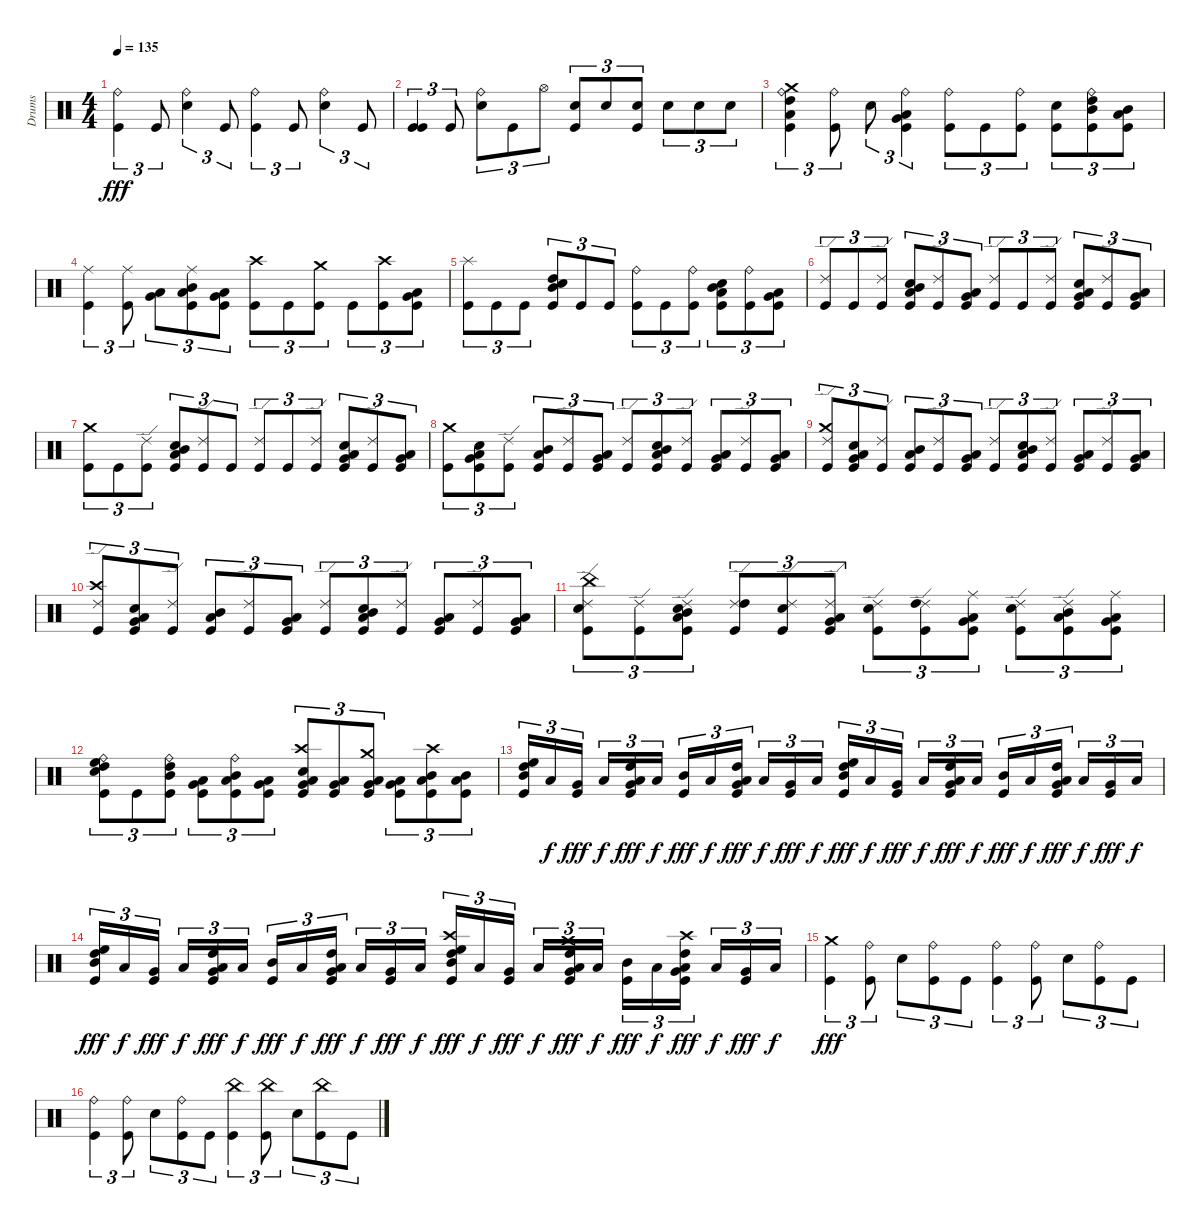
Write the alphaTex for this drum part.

\track ("Drums" "Drums") {instrument percussion}
\staff {score}
\articulation defaults
\ts (4 4)
\tempo 135
\clef neutral
\ks c
("Ride (bell)" "Kick (hit)").4{tu (3 2) dy fff} "Kick (hit)".8{tu (3 2)} ("Ride (bell)" "Snare (hit) 2").4{tu (3 2)} "Kick (hit)".8{tu (3 2)} ("Ride (bell)" "Kick (hit)").4{tu (3 2)} "Kick (hit)".8{tu (3 2)} ("Ride (bell)" "Snare (hit) 2").4{tu (3 2)} "Kick (hit)".8{tu (3 2)} |
("Kick (hit)" "Kick (hit)").4{tu (3 2)} "Kick (hit)".8{tu (3 2)} ("Ride (bell)" "Snare (hit) 2").8{tu (3 2)} "Kick (hit)".8{tu (3 2)} "Hi-Hat (open)".8{tu (3 2)} ("Snare (hit) 2" "Kick (hit)").8{tu (3 2)} "Snare (hit) 2".8{tu (3 2)} ("Snare (hit) 2" "Kick (hit)").8{tu (3 2)} "Snare (hit) 2".8{tu (3 2)} "Snare (hit) 2".8{tu (3 2)} "Snare (hit) 2".8{tu (3 2)} |
("Ride (bell)" "Crash medium (hit)" "High Tom (hit)" "Low Tom (hit)" "Kick (hit)").4{tu (3 2) volume 16} ("Ride (bell)" "Kick (hit)").8{tu (3 2)} "Snare (hit) 2".8{tu (3 2)} ("Ride (bell)" "Low Tom (hit)" "Very Low Tom (hit)" "Kick (hit)").4{tu (3 2)} ("Ride (bell)" "Kick (hit)").8{tu (3 2)} "Kick (hit)".8{tu (3 2)} ("Ride (bell)" "Kick (hit)").8{tu (3 2)} ("Snare (hit) 2" "Kick (hit)").8{tu (3 2)} ("Ride (bell)" "High Tom (hit)" "Mid Tom (hit)" "Kick (hit)").8{tu (3 2)} ("Mid Tom (hit)" "Low Tom (hit)" "Kick (hit)").8{tu (3 2)} |
("Ride (middle)" "Kick (hit)").4{tu (3 2)} ("Ride (middle)" "Kick (hit)").8{tu (3 2)} ("Low Tom (hit)" "Very Low Tom (hit)").8{tu (3 2)} ("Ride (middle)" "Mid Tom (hit)" "Low Tom (hit)" "Kick (hit)").8{tu (3 2)} ("Low Tom (hit)" "Very Low Tom (hit)" "Kick (hit)").8{tu (3 2)} ("Crash high (hit)" "Kick (hit)").8{tu (3 2)} "Kick (hit)".8{tu (3 2)} ("Crash medium (hit)" "Kick (hit)").8{tu (3 2)} "Kick (hit)".8{tu (3 2)} ("Crash high (hit)" "Kick (hit)").8{tu (3 2)} ("Very Low Tom (hit)" "Low Floor Tom (hit)" "Kick (hit)").8{tu (3 2)} |
("Splash (hit)" "Kick (hit)").8{tu (3 2)} "Kick (hit)".8{tu (3 2)} "Kick (hit)".8{tu (3 2)} ("High Tom (hit)" "Mid Tom (hit)" "Snare (hit) 2" "Kick (hit)").8{tu (3 2)} "Kick (hit)".8{tu (3 2)} "Kick (hit)".8{tu (3 2)} ("Ride (bell)" "Kick (hit)").8{tu (3 2)} "Kick (hit)".8{tu (3 2)} ("Ride (bell)" "Kick (hit)").8{tu (3 2)} ("Mid Tom (hit)" "Low Tom (hit)" "Snare (hit) 2" "Kick (hit)").8{tu (3 2)} ("Ride (bell)" "Kick (hit)").8{tu (3 2)} ("Low Tom (hit)" "Very Low Tom (hit)" "Kick (hit)").8{tu (3 2)} |
("Ride (edge) 2" "Kick (hit)").8{tu (3 2)} "Kick (hit)".8{tu (3 2)} ("Ride (edge) 2" "Kick (hit)").8{tu (3 2)} ("Mid Tom (hit)" "Low Tom (hit)" "Snare (hit) 2" "Kick (hit)").8{tu (3 2)} ("Ride (edge) 2" "Kick (hit)").8{tu (3 2)} ("Low Tom (hit)" "Very Low Tom (hit)" "Kick (hit)").8{tu (3 2)} ("Ride (edge) 2" "Kick (hit)").8{tu (3 2)} "Kick (hit)".8{tu (3 2)} ("Ride (edge) 2" "Kick (hit)").8{tu (3 2)} ("Low Tom (hit)" "Very Low Tom (hit)" "Snare (hit) 2" "Kick (hit)").8{tu (3 2)} ("Ride (edge) 2" "Kick (hit)").8{tu (3 2)} ("Very Low Tom (hit)" "Low Floor Tom (hit)" "Kick (hit)").8{tu (3 2)} |
("Crash medium (hit)" "Kick (hit)").8{tu (3 2)} "Kick (hit)".8{tu (3 2)} ("Ride (edge) 2" "Kick (hit)").8{tu (3 2)} ("Mid Tom (hit)" "Low Tom (hit)" "Snare (hit) 2" "Kick (hit)").8{tu (3 2)} ("Ride (edge) 2" "Kick (hit)").8{tu (3 2)} "Kick (hit)".8{tu (3 2)} ("Ride (edge) 2" "Kick (hit)").8{tu (3 2)} "Kick (hit)".8{tu (3 2)} ("Ride (edge) 2" "Kick (hit)").8{tu (3 2)} ("Low Tom (hit)" "Very Low Tom (hit)" "Snare (hit) 2" "Kick (hit)").8{tu (3 2)} ("Ride (edge) 2" "Kick (hit)").8{tu (3 2)} ("Very Low Tom (hit)" "Low Floor Tom (hit)" "Kick (hit)").8{tu (3 2)} |
("Crash medium (hit)" "Kick (hit)").8{tu (3 2)} ("Low Tom (hit)" "Very Low Tom (hit)" "Snare (hit) 2" "Kick (hit)").8{tu (3 2)} ("Ride (edge) 2" "Kick (hit)").8{tu (3 2)} ("Mid Tom (hit)" "Low Tom (hit)" "Kick (hit)").8{tu (3 2)} ("Ride (edge) 2" "Kick (hit)").8{tu (3 2)} ("Low Tom (hit)" "Very Low Tom (hit)" "Kick (hit)").8{tu (3 2)} ("Ride (edge) 2" "Kick (hit)").8{tu (3 2)} ("Mid Tom (hit)" "Low Tom (hit)" "Snare (hit) 2" "Kick (hit)").8{tu (3 2)} ("Ride (edge) 2" "Kick (hit)").8{tu (3 2)} ("Low Tom (hit)" "Very Low Tom (hit)" "Kick (hit)").8{tu (3 2)} ("Ride (edge) 2" "Kick (hit)").8{tu (3 2)} ("Very Low Tom (hit)" "Low Floor Tom (hit)" "Kick (hit)").8{tu (3 2)} |
("Ride (edge) 2" "Crash medium (hit)" "Kick (hit)").8{tu (3 2)} ("Low Tom (hit)" "Very Low Tom (hit)" "Snare (hit) 2" "Kick (hit)").8{tu (3 2)} ("Ride (edge) 2" "Kick (hit)").8{tu (3 2)} ("Mid Tom (hit)" "Low Tom (hit)" "Kick (hit)").8{tu (3 2)} ("Ride (edge) 2" "Kick (hit)").8{tu (3 2)} ("Low Tom (hit)" "Very Low Tom (hit)" "Kick (hit)").8{tu (3 2)} ("Ride (edge) 2" "Kick (hit)").8{tu (3 2)} ("Mid Tom (hit)" "Low Tom (hit)" "Snare (hit) 2" "Kick (hit)").8{tu (3 2)} ("Ride (edge) 2" "Kick (hit)").8{tu (3 2)} ("Low Tom (hit)" "Very Low Tom (hit)" "Kick (hit)").8{tu (3 2)} ("Ride (edge) 2" "Kick (hit)").8{tu (3 2)} ("Very Low Tom (hit)" "Low Floor Tom (hit)" "Kick (hit)").8{tu (3 2)} |
("Ride (edge) 2" "Crash high (hit)" "Kick (hit)").8{tu (3 2)} ("Low Tom (hit)" "Very Low Tom (hit)" "Snare (hit) 2" "Kick (hit)").8{tu (3 2)} ("Ride (edge) 2" "Kick (hit)").8{tu (3 2)} ("Mid Tom (hit)" "Low Tom (hit)" "Kick (hit)").8{tu (3 2)} ("Ride (edge) 2" "Kick (hit)").8{tu (3 2)} ("Low Tom (hit)" "Very Low Tom (hit)" "Kick (hit)").8{tu (3 2)} ("Ride (edge) 2" "Kick (hit)").8{tu (3 2)} ("Mid Tom (hit)" "Low Tom (hit)" "Snare (hit) 2" "Kick (hit)").8{tu (3 2)} ("Ride (edge) 2" "Kick (hit)").8{tu (3 2)} ("Low Tom (hit)" "Very Low Tom (hit)" "Kick (hit)").8{tu (3 2)} ("Ride (edge) 2" "Kick (hit)").8{tu (3 2)} ("Very Low Tom (hit)" "Low Floor Tom (hit)" "Kick (hit)").8{tu (3 2)} |
("Ride (edge) 2" "China (hit)" "Snare (hit) 2" "Kick (hit)").8{tu (3 2)} ("Ride (edge) 2" "Kick (hit)").8{tu (3 2)} ("Ride (edge) 2" "Mid Tom (hit)" "Low Tom (hit)" "Snare (hit) 2" "Kick (hit)").8{tu (3 2)} ("Ride (edge) 2" "High Tom (hit)" "Kick (hit)").8{tu (3 2)} ("Ride (edge) 2" "Snare (hit) 2" "Kick (hit)").8{tu (3 2)} ("Ride (edge) 2" "Low Tom (hit)" "Very Low Tom (hit)" "Kick (hit)").8{tu (3 2)} ("Ride (edge) 2" "Snare (hit) 2" "Kick (hit)").8{tu (3 2)} ("Ride (edge) 2" "High Tom (hit)" "Kick (hit)").8{tu (3 2)} ("Ride (middle)" "Low Tom (hit)" "Very Low Tom (hit)" "Kick (hit)").8{tu (3 2)} ("Ride (edge) 2" "Snare (hit) 2" "Kick (hit)").8{tu (3 2)} ("Ride (edge) 2" "Mid Tom (hit)" "Low Tom (hit)" "Kick (hit)").8{tu (3 2)} ("Ride (middle)" "Low Tom (hit)" "Very Low Tom (hit)" "Kick (hit)").8{tu (3 2)} |
("Ride (bell)" "High Floor Tom (hit)" "High Tom (hit)" "Snare (hit) 2" "Kick (hit)").8{tu (3 2)} "Kick (hit)".8{tu (3 2)} ("Ride (bell)" "High Tom (hit)" "Mid Tom (hit)" "Kick (hit)").8{tu (3 2)} ("Low Tom (hit)" "Very Low Tom (hit)" "Kick (hit)").8{tu (3 2)} ("Ride (bell)" "Mid Tom (hit)" "Low Tom (hit)" "Kick (hit)").8{tu (3 2)} ("Low Tom (hit)" "Very Low Tom (hit)" "Kick (hit)").8{tu (3 2)} ("Crash high (hit)" "Very Low Tom (hit)" "Low Floor Tom (hit)" "Snare (hit) 2" "Kick (hit)").8{tu (3 2)} ("Low Tom (hit)" "Very Low Tom (hit)" "Kick (hit)").8{tu (3 2)} ("Crash medium (hit)" "Very Low Tom (hit)" "Low Floor Tom (hit)" "Kick (hit)").8{tu (3 2)} ("Very Low Tom (hit)" "Low Floor Tom (hit)" "Kick (hit)").8{tu (3 2)} ("Crash high (hit)" "Mid Tom (hit)" "Low Tom (hit)" "Kick (hit)").8{tu (3 2)} ("Mid Tom (hit)" "Low Tom (hit)" "Kick (hit)").8{tu (3 2)} |
("High Floor Tom (hit)" "High Tom (hit)" "Mid Tom (hit)" "Kick (hit)").16{tu (3 2)} "Low Tom (hit)".16{tu (3 2) dy f} ("Very Low Tom (hit)" "Kick (hit)").16{tu (3 2) dy fff} "Low Tom (hit)".16{tu (3 2) dy f} ("High Tom (hit)" "Low Tom (hit)" "Very Low Tom (hit)" "Kick (hit)").16{tu (3 2) dy fff} "Low Floor Tom (hit)".16{tu (3 2) dy f} ("Mid Tom (hit)" "Kick (hit)").16{tu (3 2) dy fff} "Low Tom (hit)".16{tu (3 2) dy f} ("High Tom (hit)" "Low Tom (hit)" "Very Low Tom (hit)" "Kick (hit)").16{tu (3 2) dy fff} "Low Tom (hit)".16{tu (3 2) dy f} ("Very Low Tom (hit)" "Kick (hit)").16{tu (3 2) dy fff} "Low Floor Tom (hit)".16{tu (3 2) dy f} ("High Floor Tom (hit)" "High Tom (hit)" "Mid Tom (hit)" "Kick (hit)").16{tu (3 2) dy fff} "Low Tom (hit)".16{tu (3 2) dy f} ("Very Low Tom (hit)" "Kick (hit)").16{tu (3 2) dy fff} "Low Tom (hit)".16{tu (3 2) dy f} ("High Tom (hit)" "Low Tom (hit)" "Very Low Tom (hit)" "Kick (hit)").16{tu (3 2) dy fff} "Low Floor Tom (hit)".16{tu (3 2) dy f} ("Mid Tom (hit)" "Kick (hit)").16{tu (3 2) dy fff} "Low Tom (hit)".16{tu (3 2) dy f} ("High Tom (hit)" "Low Tom (hit)" "Very Low Tom (hit)" "Kick (hit)").16{tu (3 2) dy fff} "Low Tom (hit)".16{tu (3 2) dy f} ("Very Low Tom (hit)" "Kick (hit)").16{tu (3 2) dy fff} "Low Floor Tom (hit)".16{tu (3 2) dy f} |
("High Floor Tom (hit)" "High Tom (hit)" "Mid Tom (hit)" "Kick (hit)").16{tu (3 2) dy fff} "Low Tom (hit)".16{tu (3 2) dy f} ("Very Low Tom (hit)" "Kick (hit)").16{tu (3 2) dy fff} "Low Tom (hit)".16{tu (3 2) dy f} ("High Tom (hit)" "Low Tom (hit)" "Very Low Tom (hit)" "Kick (hit)").16{tu (3 2) dy fff} "Low Floor Tom (hit)".16{tu (3 2) dy f} ("Mid Tom (hit)" "Kick (hit)").16{tu (3 2) dy fff} "Low Tom (hit)".16{tu (3 2) dy f} ("High Tom (hit)" "Low Tom (hit)" "Very Low Tom (hit)" "Kick (hit)").16{tu (3 2) dy fff} "Low Tom (hit)".16{tu (3 2) dy f} ("Very Low Tom (hit)" "Kick (hit)").16{tu (3 2) dy fff} "Low Floor Tom (hit)".16{tu (3 2) dy f} ("Crash high (hit)" "High Floor Tom (hit)" "High Tom (hit)" "Mid Tom (hit)" "Kick (hit)").16{tu (3 2) dy fff} "Low Tom (hit)".16{tu (3 2) dy f} ("Very Low Tom (hit)" "Kick (hit)").16{tu (3 2) dy fff} "Low Tom (hit)".16{tu (3 2) dy f} ("Crash medium (hit)" "High Tom (hit)" "Low Tom (hit)" "Very Low Tom (hit)" "Kick (hit)").16{tu (3 2) dy fff} "Low Floor Tom (hit)".16{tu (3 2) dy f} ("Mid Tom (hit)" "Kick (hit)").16{tu (3 2) dy fff} "Low Tom (hit)".16{tu (3 2) dy f} ("Crash high (hit)" "High Tom (hit)" "Low Tom (hit)" "Very Low Tom (hit)" "Kick (hit)").16{tu (3 2) dy fff} "Low Tom (hit)".16{tu (3 2) dy f} ("Very Low Tom (hit)" "Kick (hit)").16{tu (3 2) dy fff} "Low Floor Tom (hit)".16{tu (3 2) dy f} |
("Crash medium (hit)" "Kick (hit)").4{tu (3 2) dy fff volume 13} ("Ride (bell)" "Kick (hit)").8{tu (3 2)} "Snare (hit) 2".8{tu (3 2)} ("Ride (bell)" "Kick (hit)").8{tu (3 2)} "Kick (hit)".8{tu (3 2)} ("Ride (bell)" "Kick (hit)").4{tu (3 2)} ("Ride (bell)" "Kick (hit)").8{tu (3 2)} "Snare (hit) 2".8{tu (3 2)} ("Ride (bell)" "Kick (hit)").8{tu (3 2)} "Kick (hit)".8{tu (3 2)} |
("Ride (bell)" "Kick (hit)").4{tu (3 2)} ("Ride (bell)" "Kick (hit)").8{tu (3 2)} "Snare (hit) 2".8{tu (3 2)} ("Ride (bell)" "Kick (hit)").8{tu (3 2)} "Kick (hit)".8{tu (3 2)} ("China (hit)" "Kick (hit)").4{tu (3 2)} ("China (hit)" "Kick (hit)").8{tu (3 2)} "Snare (hit) 2".8{tu (3 2)} ("China (hit)" "Kick (hit)").8{tu (3 2)} "Kick (hit)".8{tu (3 2)}
